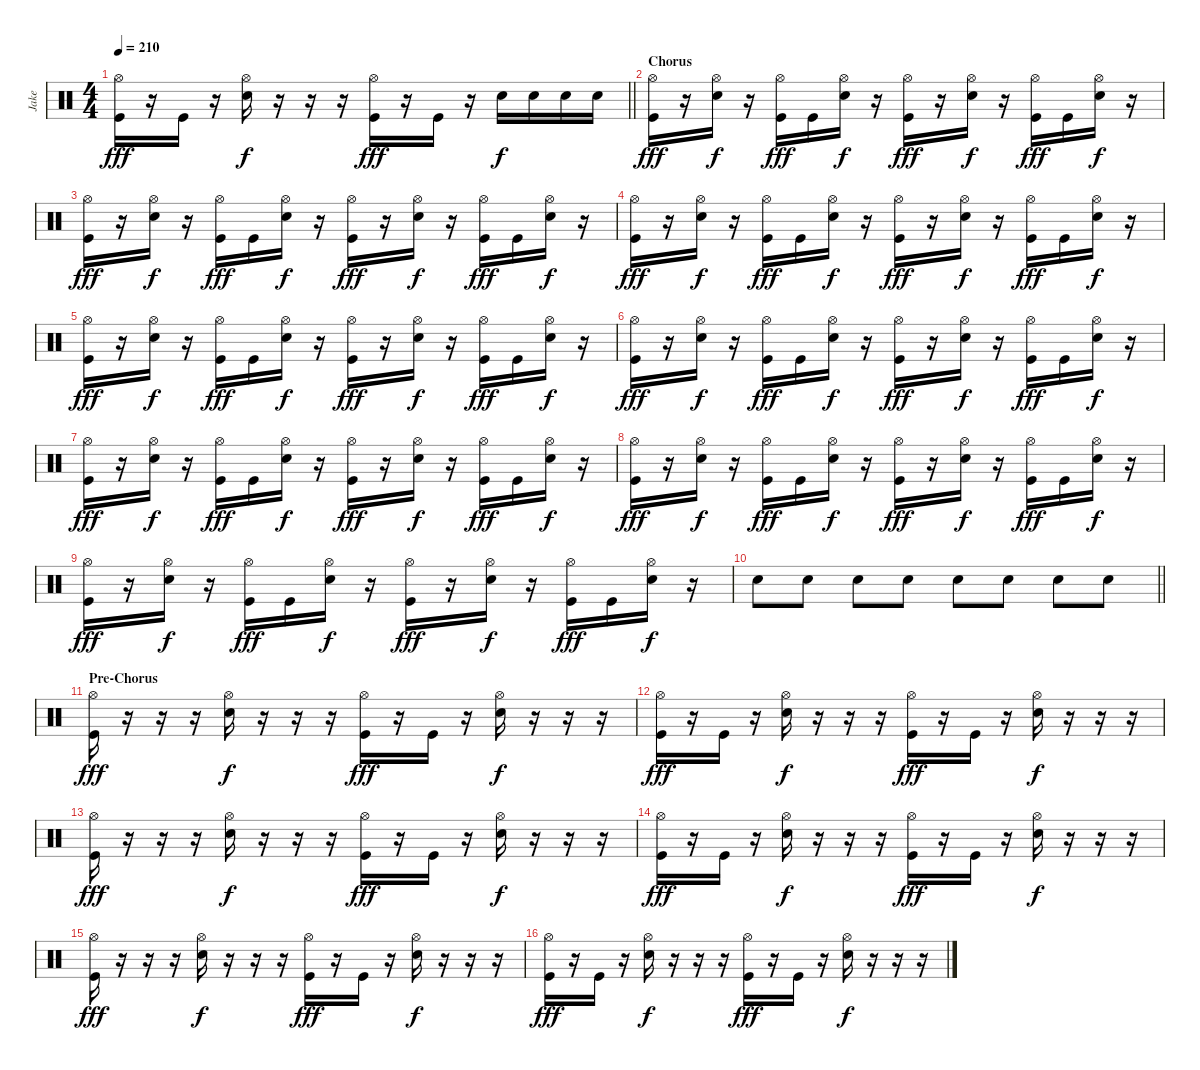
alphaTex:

\track ("Jake" "Jake") {instrument percussion}
\staff {score}
\articulation defaults
\ts (4 4)
\tempo 210
\clef neutral
\barLineRight lightlight
\ks c
("Hi-Hat (open)" "Kick (hit)").16{dy fff} r.16 "Kick (hit)".16 r.16 ("Hi-Hat (open)" "Electric Snare (hit)").16{dy f} r.16 r.16 r.16 ("Hi-Hat (open)" "Kick (hit)").16{dy fff} r.16 "Kick (hit)".16 r.16 "Electric Snare (hit)".16{dy f} "Electric Snare (hit)".16 "Electric Snare (hit)".16 "Electric Snare (hit)".16 |
\section ("" "Chorus")
("Hi-Hat (open)" "Kick (hit)").16{dy fff} r.16 ("Hi-Hat (open)" "Electric Snare (hit)").16{dy f} r.16 ("Hi-Hat (open)" "Kick (hit)").16{dy fff} "Kick (hit)".16 ("Hi-Hat (open)" "Electric Snare (hit)").16{dy f} r.16 ("Hi-Hat (open)" "Kick (hit)").16{dy fff} r.16 ("Hi-Hat (open)" "Electric Snare (hit)").16{dy f} r.16 ("Hi-Hat (open)" "Kick (hit)").16{dy fff} "Kick (hit)".16 ("Hi-Hat (open)" "Electric Snare (hit)").16{dy f} r.16 |
("Hi-Hat (open)" "Kick (hit)").16{dy fff} r.16 ("Hi-Hat (open)" "Electric Snare (hit)").16{dy f} r.16 ("Hi-Hat (open)" "Kick (hit)").16{dy fff} "Kick (hit)".16 ("Hi-Hat (open)" "Electric Snare (hit)").16{dy f} r.16 ("Hi-Hat (open)" "Kick (hit)").16{dy fff} r.16 ("Hi-Hat (open)" "Electric Snare (hit)").16{dy f} r.16 ("Hi-Hat (open)" "Kick (hit)").16{dy fff} "Kick (hit)".16 ("Hi-Hat (open)" "Electric Snare (hit)").16{dy f} r.16 |
("Hi-Hat (open)" "Kick (hit)").16{dy fff} r.16 ("Hi-Hat (open)" "Electric Snare (hit)").16{dy f} r.16 ("Hi-Hat (open)" "Kick (hit)").16{dy fff} "Kick (hit)".16 ("Hi-Hat (open)" "Electric Snare (hit)").16{dy f} r.16 ("Hi-Hat (open)" "Kick (hit)").16{dy fff} r.16 ("Hi-Hat (open)" "Electric Snare (hit)").16{dy f} r.16 ("Hi-Hat (open)" "Kick (hit)").16{dy fff} "Kick (hit)".16 ("Hi-Hat (open)" "Electric Snare (hit)").16{dy f} r.16 |
("Hi-Hat (open)" "Kick (hit)").16{dy fff} r.16 ("Hi-Hat (open)" "Electric Snare (hit)").16{dy f} r.16 ("Hi-Hat (open)" "Kick (hit)").16{dy fff} "Kick (hit)".16 ("Hi-Hat (open)" "Electric Snare (hit)").16{dy f} r.16 ("Hi-Hat (open)" "Kick (hit)").16{dy fff} r.16 ("Hi-Hat (open)" "Electric Snare (hit)").16{dy f} r.16 ("Hi-Hat (open)" "Kick (hit)").16{dy fff} "Kick (hit)".16 ("Hi-Hat (open)" "Electric Snare (hit)").16{dy f} r.16 |
("Hi-Hat (open)" "Kick (hit)").16{dy fff} r.16 ("Hi-Hat (open)" "Electric Snare (hit)").16{dy f} r.16 ("Hi-Hat (open)" "Kick (hit)").16{dy fff} "Kick (hit)".16 ("Hi-Hat (open)" "Electric Snare (hit)").16{dy f} r.16 ("Hi-Hat (open)" "Kick (hit)").16{dy fff} r.16 ("Hi-Hat (open)" "Electric Snare (hit)").16{dy f} r.16 ("Hi-Hat (open)" "Kick (hit)").16{dy fff} "Kick (hit)".16 ("Hi-Hat (open)" "Electric Snare (hit)").16{dy f} r.16 |
("Hi-Hat (open)" "Kick (hit)").16{dy fff} r.16 ("Hi-Hat (open)" "Electric Snare (hit)").16{dy f} r.16 ("Hi-Hat (open)" "Kick (hit)").16{dy fff} "Kick (hit)".16 ("Hi-Hat (open)" "Electric Snare (hit)").16{dy f} r.16 ("Hi-Hat (open)" "Kick (hit)").16{dy fff} r.16 ("Hi-Hat (open)" "Electric Snare (hit)").16{dy f} r.16 ("Hi-Hat (open)" "Kick (hit)").16{dy fff} "Kick (hit)".16 ("Hi-Hat (open)" "Electric Snare (hit)").16{dy f} r.16 |
("Hi-Hat (open)" "Kick (hit)").16{dy fff} r.16 ("Hi-Hat (open)" "Electric Snare (hit)").16{dy f} r.16 ("Hi-Hat (open)" "Kick (hit)").16{dy fff} "Kick (hit)".16 ("Hi-Hat (open)" "Electric Snare (hit)").16{dy f} r.16 ("Hi-Hat (open)" "Kick (hit)").16{dy fff} r.16 ("Hi-Hat (open)" "Electric Snare (hit)").16{dy f} r.16 ("Hi-Hat (open)" "Kick (hit)").16{dy fff} "Kick (hit)".16 ("Hi-Hat (open)" "Electric Snare (hit)").16{dy f} r.16 |
("Hi-Hat (open)" "Kick (hit)").16{dy fff} r.16 ("Hi-Hat (open)" "Electric Snare (hit)").16{dy f} r.16 ("Hi-Hat (open)" "Kick (hit)").16{dy fff} "Kick (hit)".16 ("Hi-Hat (open)" "Electric Snare (hit)").16{dy f} r.16 ("Hi-Hat (open)" "Kick (hit)").16{dy fff} r.16 ("Hi-Hat (open)" "Electric Snare (hit)").16{dy f} r.16 ("Hi-Hat (open)" "Kick (hit)").16{dy fff} "Kick (hit)".16 ("Hi-Hat (open)" "Electric Snare (hit)").16{dy f} r.16 |
\barLineRight lightlight "Electric Snare (hit)".8 "Electric Snare (hit)".8 "Electric Snare (hit)".8 "Electric Snare (hit)".8 "Electric Snare (hit)".8 "Electric Snare (hit)".8 "Electric Snare (hit)".8 "Electric Snare (hit)".8
|
\section ("" "Pre-Chorus")
("Hi-Hat (open)" "Kick (hit)").16{dy fff} r.16 r.16 r.16 ("Hi-Hat (open)" "Electric Snare (hit)").16{dy f} r.16 r.16 r.16 ("Hi-Hat (open)" "Kick (hit)").16{dy fff} r.16 "Kick (hit)".16 r.16 ("Hi-Hat (open)" "Electric Snare (hit)").16{dy f} r.16 r.16 r.16 |
("Hi-Hat (open)" "Kick (hit)").16{dy fff} r.16 "Kick (hit)".16 r.16 ("Hi-Hat (open)" "Electric Snare (hit)").16{dy f} r.16 r.16 r.16 ("Hi-Hat (open)" "Kick (hit)").16{dy fff} r.16 "Kick (hit)".16 r.16 ("Hi-Hat (open)" "Electric Snare (hit)").16{dy f} r.16 r.16 r.16 |
("Hi-Hat (open)" "Kick (hit)").16{dy fff} r.16 r.16 r.16 ("Hi-Hat (open)" "Electric Snare (hit)").16{dy f} r.16 r.16 r.16 ("Hi-Hat (open)" "Kick (hit)").16{dy fff} r.16 "Kick (hit)".16 r.16 ("Hi-Hat (open)" "Electric Snare (hit)").16{dy f} r.16 r.16 r.16 |
("Hi-Hat (open)" "Kick (hit)").16{dy fff} r.16 "Kick (hit)".16 r.16 ("Hi-Hat (open)" "Electric Snare (hit)").16{dy f} r.16 r.16 r.16 ("Hi-Hat (open)" "Kick (hit)").16{dy fff} r.16 "Kick (hit)".16 r.16 ("Hi-Hat (open)" "Electric Snare (hit)").16{dy f} r.16 r.16 r.16 |
("Hi-Hat (open)" "Kick (hit)").16{dy fff} r.16 r.16 r.16 ("Hi-Hat (open)" "Electric Snare (hit)").16{dy f} r.16 r.16 r.16 ("Hi-Hat (open)" "Kick (hit)").16{dy fff} r.16 "Kick (hit)".16 r.16 ("Hi-Hat (open)" "Electric Snare (hit)").16{dy f} r.16 r.16 r.16 |
("Hi-Hat (open)" "Kick (hit)").16{dy fff} r.16 "Kick (hit)".16 r.16 ("Hi-Hat (open)" "Electric Snare (hit)").16{dy f} r.16 r.16 r.16 ("Hi-Hat (open)" "Kick (hit)").16{dy fff} r.16 "Kick (hit)".16 r.16 ("Hi-Hat (open)" "Electric Snare (hit)").16{dy f} r.16 r.16 r.16
